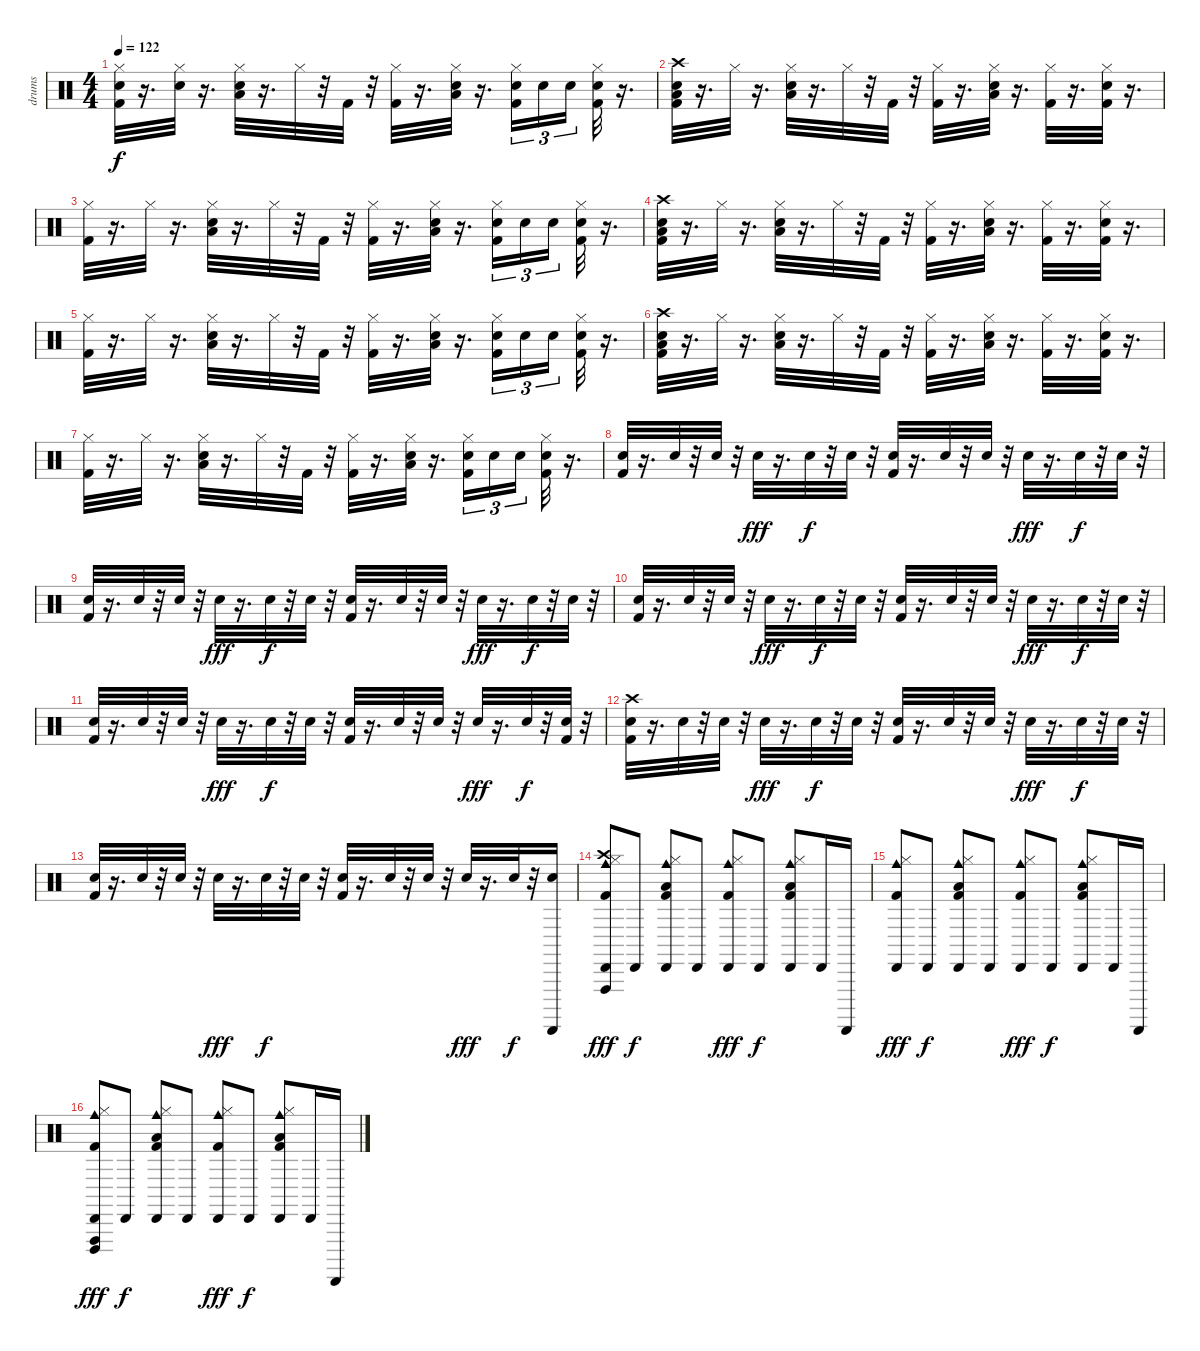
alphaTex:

\track ("drums" "drums") {instrument percussion}
\staff {score}
\articulation defaults
\ts (4 4)
\tempo 122
\clef neutral
\ks c
("Snare (hit) 2" "Kick (hit) 2" "Hi-Hat (closed)").32{dy f} r.16{d} ("Snare (hit) 2" "Hi-Hat (closed)").32 r.16{d} ("Low Floor Tom (hit)" "Hi-Hat (closed)" "Snare (hit) 2").32 r.16{d} "Hi-Hat (closed)".32 r.32 "Kick (hit) 2".32 r.32 ("Hi-Hat (closed)" "Kick (hit) 2").32 r.16{d} ("Low Floor Tom (hit)" "Hi-Hat (closed)" "Snare (hit) 2").32 r.16{d} ("Snare (hit) 2" "Hi-Hat (closed)" "Kick (hit) 2").16{tu (3 2)} "Snare (hit) 2".16{tu (3 2)} "Snare (hit) 2".16{tu (3 2)} ("Snare (hit) 2" "Hi-Hat (closed)" "Kick (hit) 2").32 r.16{d} |
("Low Floor Tom (hit)" "Snare (hit) 2" "Kick (hit) 2" "Crash high (hit)").32 r.16{d} "Hi-Hat (closed)".32 r.16{d} ("Low Floor Tom (hit)" "Hi-Hat (closed)" "Snare (hit) 2").32 r.16{d} "Hi-Hat (closed)".32 r.32 "Kick (hit) 2".32 r.32 ("Hi-Hat (closed)" "Kick (hit) 2").32 r.16{d} ("Low Floor Tom (hit)" "Hi-Hat (closed)" "Snare (hit) 2").32 r.16{d} ("Hi-Hat (closed)" "Kick (hit) 2").32 r.16{d} ("Snare (hit) 2" "Hi-Hat (closed)" "Kick (hit) 2").32 r.16{d} |
("Kick (hit) 2" "Hi-Hat (closed)").32 r.16{d} "Hi-Hat (closed)".32 r.16{d} ("Low Floor Tom (hit)" "Hi-Hat (closed)" "Snare (hit) 2").32 r.16{d} "Hi-Hat (closed)".32 r.32 "Kick (hit) 2".32 r.32 ("Hi-Hat (closed)" "Kick (hit) 2").32 r.16{d} ("Low Floor Tom (hit)" "Hi-Hat (closed)" "Snare (hit) 2").32 r.16{d} ("Snare (hit) 2" "Hi-Hat (closed)" "Kick (hit) 2").16{tu (3 2)} "Snare (hit) 2".16{tu (3 2)} "Snare (hit) 2".16{tu (3 2)} ("Snare (hit) 2" "Hi-Hat (closed)" "Kick (hit) 2").32 r.16{d} |
("Low Floor Tom (hit)" "Snare (hit) 2" "Kick (hit) 2" "Crash high (hit)").32 r.16{d} "Hi-Hat (closed)".32 r.16{d} ("Low Floor Tom (hit)" "Hi-Hat (closed)" "Snare (hit) 2").32 r.16{d} "Hi-Hat (closed)".32 r.32 "Kick (hit) 2".32 r.32 ("Hi-Hat (closed)" "Kick (hit) 2").32 r.16{d} ("Low Floor Tom (hit)" "Hi-Hat (closed)" "Snare (hit) 2").32 r.16{d} ("Hi-Hat (closed)" "Kick (hit) 2").32 r.16{d} ("Snare (hit) 2" "Hi-Hat (closed)" "Kick (hit) 2").32 r.16{d} |
("Kick (hit) 2" "Hi-Hat (closed)").32 r.16{d} "Hi-Hat (closed)".32 r.16{d} ("Low Floor Tom (hit)" "Hi-Hat (closed)" "Snare (hit) 2").32 r.16{d} "Hi-Hat (closed)".32 r.32 "Kick (hit) 2".32 r.32 ("Hi-Hat (closed)" "Kick (hit) 2").32 r.16{d} ("Low Floor Tom (hit)" "Hi-Hat (closed)" "Snare (hit) 2").32 r.16{d} ("Snare (hit) 2" "Hi-Hat (closed)" "Kick (hit) 2").16{tu (3 2)} "Snare (hit) 2".16{tu (3 2)} "Snare (hit) 2".16{tu (3 2)} ("Snare (hit) 2" "Hi-Hat (closed)" "Kick (hit) 2").32 r.16{d} |
("Low Floor Tom (hit)" "Snare (hit) 2" "Kick (hit) 2" "Crash high (hit)").32 r.16{d} "Hi-Hat (closed)".32 r.16{d} ("Low Floor Tom (hit)" "Hi-Hat (closed)" "Snare (hit) 2").32 r.16{d} "Hi-Hat (closed)".32 r.32 "Kick (hit) 2".32 r.32 ("Hi-Hat (closed)" "Kick (hit) 2").32 r.16{d} ("Low Floor Tom (hit)" "Hi-Hat (closed)" "Snare (hit) 2").32 r.16{d} ("Hi-Hat (closed)" "Kick (hit) 2").32 r.16{d} ("Snare (hit) 2" "Hi-Hat (closed)" "Kick (hit) 2").32 r.16{d} |
("Kick (hit) 2" "Hi-Hat (closed)").32 r.16{d} "Hi-Hat (closed)".32 r.16{d} ("Low Floor Tom (hit)" "Hi-Hat (closed)" "Snare (hit) 2").32 r.16{d} "Hi-Hat (closed)".32 r.32 "Kick (hit) 2".32 r.32 ("Hi-Hat (closed)" "Kick (hit) 2").32 r.16{d} ("Low Floor Tom (hit)" "Hi-Hat (closed)" "Snare (hit) 2").32 r.16{d} ("Snare (hit) 2" "Hi-Hat (closed)" "Kick (hit) 2").16{tu (3 2)} "Snare (hit) 2".16{tu (3 2)} "Snare (hit) 2".16{tu (3 2)} ("Snare (hit) 2" "Hi-Hat (closed)" "Kick (hit) 2").32 r.16{d} |
("Snare (hit) 2" "Kick (hit) 2").32 r.16{d} "Snare (hit) 2".32 r.32 "Snare (hit) 2".32 r.32 "Snare (hit) 2".32{dy fff} r.16{d} "Snare (hit) 2".32{dy f} r.32 "Snare (hit) 2".32 r.32 ("Snare (hit) 2" "Kick (hit) 2").32 r.16{d} "Snare (hit) 2".32 r.32 "Snare (hit) 2".32 r.32 "Snare (hit) 2".32{dy fff} r.16{d} "Snare (hit) 2".32{dy f} r.32 "Snare (hit) 2".32 r.32 |
("Snare (hit) 2" "Kick (hit) 2").32 r.16{d} "Snare (hit) 2".32 r.32 "Snare (hit) 2".32 r.32 "Snare (hit) 2".32{dy fff} r.16{d} "Snare (hit) 2".32{dy f} r.32 "Snare (hit) 2".32 r.32 ("Snare (hit) 2" "Kick (hit) 2").32 r.16{d} "Snare (hit) 2".32 r.32 "Snare (hit) 2".32 r.32 "Snare (hit) 2".32{dy fff} r.16{d} "Snare (hit) 2".32{dy f} r.32 "Snare (hit) 2".32 r.32 |
("Snare (hit) 2" "Kick (hit) 2").32 r.16{d} "Snare (hit) 2".32 r.32 "Snare (hit) 2".32 r.32 "Snare (hit) 2".32{dy fff} r.16{d} "Snare (hit) 2".32{dy f} r.32 "Snare (hit) 2".32 r.32 ("Snare (hit) 2" "Kick (hit) 2").32 r.16{d} "Snare (hit) 2".32 r.32 "Snare (hit) 2".32 r.32 "Snare (hit) 2".32{dy fff} r.16{d} "Snare (hit) 2".32{dy f} r.32 "Snare (hit) 2".32 r.32 |
("Snare (hit) 2" "Kick (hit) 2").32 r.16{d} "Snare (hit) 2".32 r.32 "Snare (hit) 2".32 r.32 "Snare (hit) 2".32{dy fff} r.16{d} "Snare (hit) 2".32{dy f} r.32 "Snare (hit) 2".32 r.32 ("Snare (hit) 2" "Kick (hit) 2").32 r.16{d} "Snare (hit) 2".32 r.32 "Snare (hit) 2".32 r.32 "Snare (hit) 2".32{dy fff} r.16{d} "Snare (hit) 2".32{dy f} r.32 ("Kick (hit) 2" "Snare (hit) 2").32 r.32 |
("Crash high (hit)" "Snare (hit) 2" "Kick (hit) 2").32 r.16{d} "Snare (hit) 2".32 r.32 "Snare (hit) 2".32 r.32 "Snare (hit) 2".32{dy fff} r.16{d} "Snare (hit) 2".32{dy f} r.32 "Snare (hit) 2".32 r.32 ("Snare (hit) 2" "Kick (hit) 2").32 r.16{d} "Snare (hit) 2".32 r.32 "Snare (hit) 2".32 r.32 "Snare (hit) 2".32{dy fff} r.16{d} "Snare (hit) 2".32{dy f} r.32 "Snare (hit) 2".32 r.32 |
("Kick (hit) 2" "Snare (hit) 2").32 r.16{d} "Snare (hit) 2".32 r.32 "Snare (hit) 2".32 r.32 "Snare (hit) 2".32{dy fff} r.16{d} "Snare (hit) 2".32{dy f} r.32 "Snare (hit) 2".32 r.32 ("Snare (hit) 2" "Kick (hit) 2").32 r.16{d} "Snare (hit) 2".32 r.32 "Snare (hit) 2".32 r.32 "Snare (hit) 2".32{dy fff} r.16{d} "Snare (hit) 2".32{dy f} r.32 ("Snare (hit) 2" "Guiro (scrap-return)").16 |
("Hi-Hat (closed)" "Vibraslap (hit)" "Cabasa (hit)" "Kick (hit) 2" "Crash high (hit)" "Cowbell medium (hit)").8{dy fff} "Cabasa (hit)".8{dy f} ("Cabasa (hit)" "Kick (hit) 2" "Cowbell medium (hit)" "Hi-Hat (closed)" "Low Floor Tom (hit)").8 "Cabasa (hit)".8 ("Cabasa (hit)" "Kick (hit) 2" "Hi-Hat (closed)" "Cowbell medium (hit)").8{dy fff} "Cabasa (hit)".8{dy f} ("Hi-Hat (closed)" "Cowbell medium (hit)" "Cabasa (hit)" "Low Floor Tom (hit)" "Kick (hit) 2").8 "Cabasa (hit)".16 "Guiro (scrap-return)".16 |
("Hi-Hat (closed)" "Cabasa (hit)" "Kick (hit) 2" "Cowbell medium (hit)").8{dy fff} "Cabasa (hit)".8{dy f} ("Cabasa (hit)" "Cowbell medium (hit)" "Kick (hit) 2" "Low Floor Tom (hit)" "Hi-Hat (closed)").8 "Cabasa (hit)".8 ("Hi-Hat (closed)" "Cowbell medium (hit)" "Kick (hit) 2" "Cabasa (hit)").8{dy fff} "Cabasa (hit)".8{dy f} ("Low Floor Tom (hit)" "Kick (hit) 2" "Cabasa (hit)" "Cowbell medium (hit)" "Hi-Hat (closed)").8 "Cabasa (hit)".16 "Guiro (scrap-return)".16 |
("Cuica (open)" "Vibraslap (hit)" "Cabasa (hit)" "Kick (hit) 2" "Cowbell medium (hit)" "Hi-Hat (closed)").8{dy fff} "Cabasa (hit)".8{dy f} ("Hi-Hat (closed)" "Cowbell medium (hit)" "Kick (hit) 2" "Low Floor Tom (hit)" "Cabasa (hit)").8 "Cabasa (hit)".8 ("Cabasa (hit)" "Cowbell medium (hit)" "Kick (hit) 2" "Hi-Hat (closed)").8{dy fff} "Cabasa (hit)".8{dy f} ("Kick (hit) 2" "Hi-Hat (closed)" "Cabasa (hit)" "Cowbell medium (hit)" "Low Floor Tom (hit)").8 "Cabasa (hit)".16 "Guiro (scrap-return)".16
